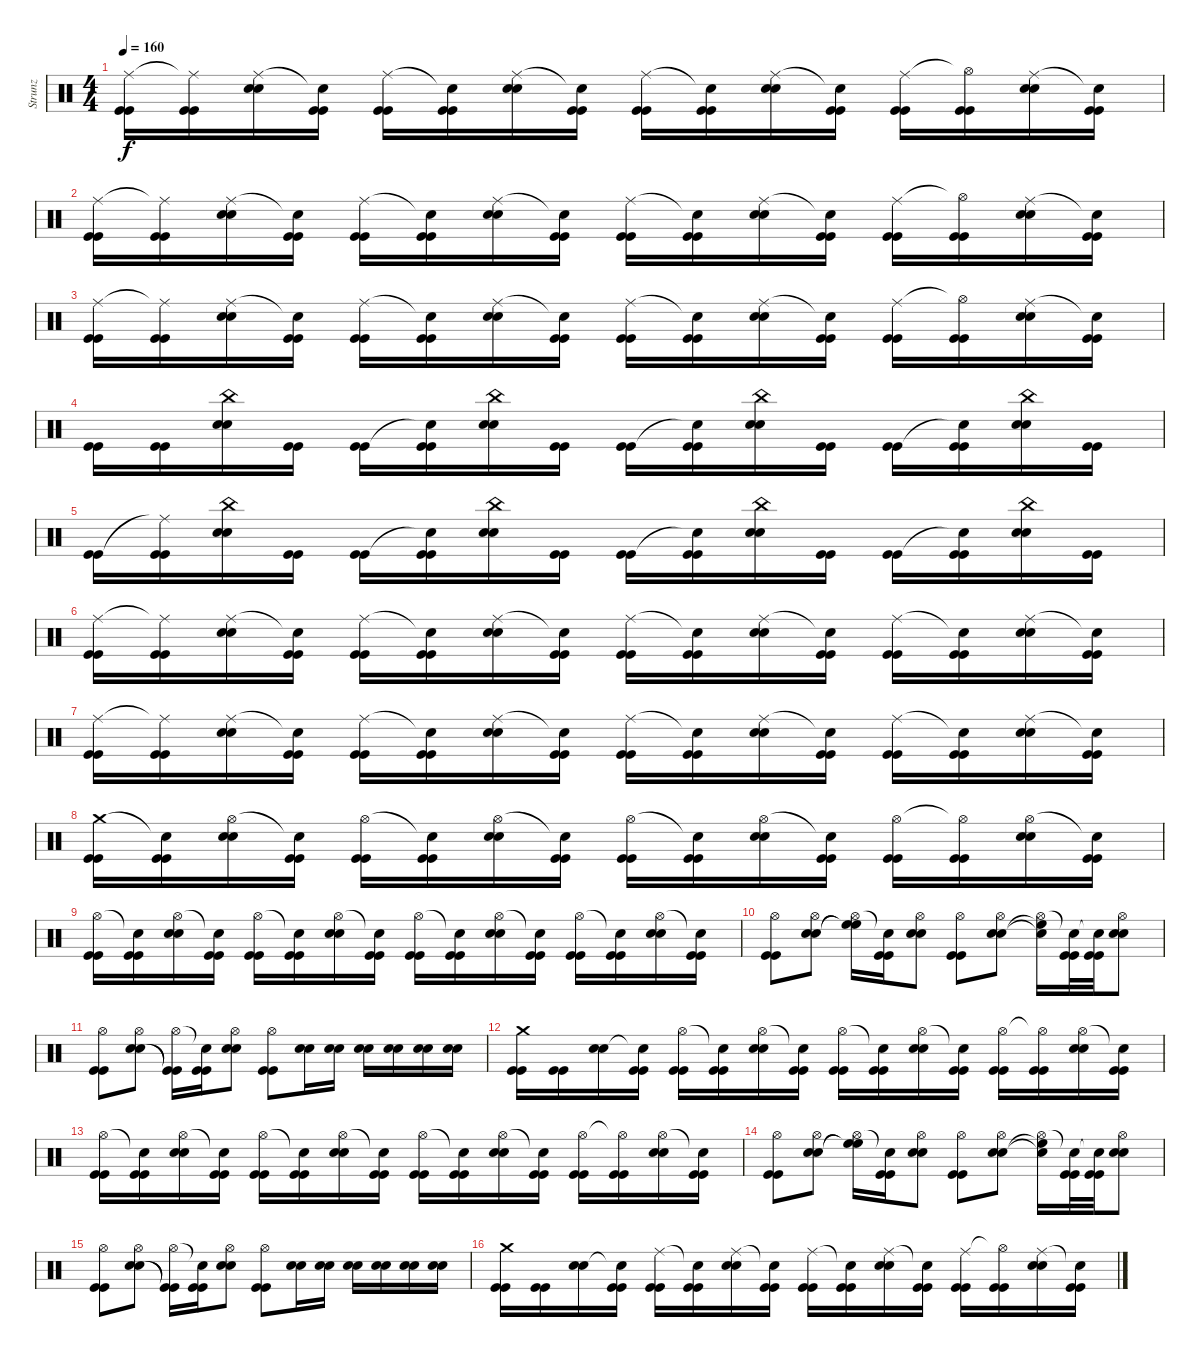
\track ("Strunz" "Strunz") {instrument percussion}
\staff {score}
\articulation defaults
\ts (4 4)
\tempo 160
\clef neutral
\ks c
("Ride (middle)" "Kick (hit)" "Kick (hit)").16{dy f} ("Ride (middle)"{t} "Kick (hit)" "Kick (hit)").16 ("Ride (middle)" "Snare (hit) 2" "Snare (hit) 2").16 ("Snare (hit)"{t} "Kick (hit)" "Kick (hit)").16 ("Ride (middle)" "Kick (hit)" "Kick (hit)").16 ("Snare (hit)"{t} "Kick (hit)" "Kick (hit)").16 ("Ride (middle)" "Snare (hit) 2" "Snare (hit) 2").16 ("Snare (hit)"{t} "Kick (hit)" "Kick (hit)").16 ("Ride (middle)" "Kick (hit)" "Kick (hit)").16 ("Snare (hit)"{t} "Kick (hit)" "Kick (hit)").16 ("Ride (middle)" "Snare (hit) 2" "Snare (hit) 2").16 ("Snare (hit)"{t} "Kick (hit)" "Kick (hit)").16 ("Ride (middle)" "Kick (hit)" "Kick (hit)").16 ("Hi-Hat (open)"{t} "Kick (hit)" "Kick (hit)").16 ("Ride (middle)" "Snare (hit) 2" "Snare (hit) 2").16 ("Snare (hit)"{t} "Kick (hit)" "Kick (hit)").16 |
("Ride (middle)" "Kick (hit)" "Kick (hit)").16 ("Ride (middle)"{t} "Kick (hit)" "Kick (hit)").16 ("Ride (middle)" "Snare (hit) 2" "Snare (hit) 2").16 ("Snare (hit)"{t} "Kick (hit)" "Kick (hit)").16 ("Ride (middle)" "Kick (hit)" "Kick (hit)").16 ("Snare (hit)"{t} "Kick (hit)" "Kick (hit)").16 ("Ride (middle)" "Snare (hit) 2" "Snare (hit) 2").16 ("Snare (hit)"{t} "Kick (hit)" "Kick (hit)").16 ("Ride (middle)" "Kick (hit)" "Kick (hit)").16 ("Snare (hit)"{t} "Kick (hit)" "Kick (hit)").16 ("Ride (middle)" "Snare (hit) 2" "Snare (hit) 2").16 ("Snare (hit)"{t} "Kick (hit)" "Kick (hit)").16 ("Ride (middle)" "Kick (hit)" "Kick (hit)").16 ("Hi-Hat (open)"{t} "Kick (hit)" "Kick (hit)").16 ("Ride (middle)" "Snare (hit) 2" "Snare (hit) 2").16 ("Snare (hit)"{t} "Kick (hit)" "Kick (hit)").16 |
("Ride (middle)" "Kick (hit)" "Kick (hit)").16 ("Ride (middle)"{t} "Kick (hit)" "Kick (hit)").16 ("Ride (middle)" "Snare (hit) 2" "Snare (hit) 2").16 ("Snare (hit)"{t} "Kick (hit)" "Kick (hit)").16 ("Ride (middle)" "Kick (hit)" "Kick (hit)").16 ("Snare (hit)"{t} "Kick (hit)" "Kick (hit)").16 ("Ride (middle)" "Snare (hit) 2" "Snare (hit) 2").16 ("Snare (hit)"{t} "Kick (hit)" "Kick (hit)").16 ("Ride (middle)" "Kick (hit)" "Kick (hit)").16 ("Snare (hit)"{t} "Kick (hit)" "Kick (hit)").16 ("Ride (middle)" "Snare (hit) 2" "Snare (hit) 2").16 ("Snare (hit)"{t} "Kick (hit)" "Kick (hit)").16 ("Ride (middle)" "Kick (hit)" "Kick (hit)").16 ("Hi-Hat (open)"{t} "Kick (hit)" "Kick (hit)").16 ("Ride (middle)" "Snare (hit) 2" "Snare (hit) 2").16 ("Snare (hit)"{t} "Kick (hit)" "Kick (hit)").16 |
("Kick (hit)" "Kick (hit)").16 ("Kick (hit)" "Kick (hit)").16 ("China (hit)" "Snare (hit) 2" "Snare (hit) 2").16 ("Kick (hit)" "Kick (hit)").16 ("Kick (hit)" "Kick (hit)").16 ("Snare (hit)"{t} "Kick (hit)" "Kick (hit)").16 ("China (hit)" "Snare (hit) 2" "Snare (hit) 2").16 ("Kick (hit)" "Kick (hit)").16 ("Kick (hit)" "Kick (hit)").16 ("Snare (hit)"{t} "Kick (hit)" "Kick (hit)").16 ("China (hit)" "Snare (hit) 2" "Snare (hit) 2").16 ("Kick (hit)" "Kick (hit)").16 ("Kick (hit)" "Kick (hit)").16 ("Snare (hit)"{t} "Kick (hit)" "Kick (hit)").16 ("China (hit)" "Snare (hit) 2" "Snare (hit) 2").16 ("Kick (hit)" "Kick (hit)").16 |
("Kick (hit)" "Kick (hit)").16 ("Ride (middle)"{t} "Kick (hit)" "Kick (hit)").16 ("China (hit)" "Snare (hit) 2" "Snare (hit) 2").16 ("Kick (hit)" "Kick (hit)").16 ("Kick (hit)" "Kick (hit)").16 ("Snare (hit)"{t} "Kick (hit)" "Kick (hit)").16 ("China (hit)" "Snare (hit) 2" "Snare (hit) 2").16 ("Kick (hit)" "Kick (hit)").16 ("Kick (hit)" "Kick (hit)").16 ("Snare (hit)"{t} "Kick (hit)" "Kick (hit)").16 ("China (hit)" "Snare (hit) 2" "Snare (hit) 2").16 ("Kick (hit)" "Kick (hit)").16 ("Kick (hit)" "Kick (hit)").16 ("Snare (hit)"{t} "Kick (hit)" "Kick (hit)").16 ("China (hit)" "Snare (hit) 2" "Snare (hit) 2").16 ("Kick (hit)" "Kick (hit)").16 |
("Ride (middle)" "Kick (hit)" "Kick (hit)").16 ("Ride (middle)"{t} "Kick (hit)" "Kick (hit)").16 ("Ride (middle)" "Snare (hit) 2" "Snare (hit) 2").16 ("Snare (hit)"{t} "Kick (hit)" "Kick (hit)").16 ("Ride (middle)" "Kick (hit)" "Kick (hit)").16 ("Snare (hit)"{t} "Kick (hit)" "Kick (hit)").16 ("Ride (middle)" "Snare (hit) 2" "Snare (hit) 2").16 ("Snare (hit)"{t} "Kick (hit)" "Kick (hit)").16 ("Ride (middle)" "Kick (hit)" "Kick (hit)").16 ("Snare (hit)"{t} "Kick (hit)" "Kick (hit)").16 ("Ride (middle)" "Snare (hit) 2" "Snare (hit) 2").16 ("Snare (hit)"{t} "Kick (hit)" "Kick (hit)").16 ("Ride (middle)" "Kick (hit)" "Kick (hit)").16 ("Snare (hit)"{t} "Kick (hit)" "Kick (hit)").16 ("Ride (middle)" "Snare (hit) 2" "Snare (hit) 2").16 ("Snare (hit)"{t} "Kick (hit)" "Kick (hit)").16 |
("Ride (middle)" "Kick (hit)" "Kick (hit)").16 ("Ride (middle)"{t} "Kick (hit)" "Kick (hit)").16 ("Ride (middle)" "Snare (hit) 2" "Snare (hit) 2").16 ("Snare (hit)"{t} "Kick (hit)" "Kick (hit)").16 ("Ride (middle)" "Kick (hit)" "Kick (hit)").16 ("Snare (hit)"{t} "Kick (hit)" "Kick (hit)").16 ("Ride (middle)" "Snare (hit) 2" "Snare (hit) 2").16 ("Snare (hit)"{t} "Kick (hit)" "Kick (hit)").16 ("Ride (middle)" "Kick (hit)" "Kick (hit)").16 ("Snare (hit)"{t} "Kick (hit)" "Kick (hit)").16 ("Ride (middle)" "Snare (hit) 2" "Snare (hit) 2").16 ("Snare (hit)"{t} "Kick (hit)" "Kick (hit)").16 ("Ride (middle)" "Kick (hit)" "Kick (hit)").16 ("Snare (hit)"{t} "Kick (hit)" "Kick (hit)").16 ("Ride (middle)" "Snare (hit) 2" "Snare (hit) 2").16 ("Snare (hit)"{t} "Kick (hit)" "Kick (hit)").16 |
("Crash medium (hit)" "Kick (hit)" "Kick (hit)").16 ("Snare (hit)"{t} "Kick (hit)" "Kick (hit)").16 ("Hi-Hat (open)" "Snare (hit) 2" "Snare (hit) 2").16 ("Snare (hit)"{t} "Kick (hit)" "Kick (hit)").16 ("Hi-Hat (open)" "Kick (hit)" "Kick (hit)").16 ("Snare (hit)"{t} "Kick (hit)" "Kick (hit)").16 ("Hi-Hat (open)" "Snare (hit) 2" "Snare (hit) 2").16 ("Snare (hit)"{t} "Kick (hit)" "Kick (hit)").16 ("Hi-Hat (open)" "Kick (hit)" "Kick (hit)").16 ("Snare (hit)"{t} "Kick (hit)" "Kick (hit)").16 ("Hi-Hat (open)" "Snare (hit) 2" "Snare (hit) 2").16 ("Snare (hit)"{t} "Kick (hit)" "Kick (hit)").16 ("Hi-Hat (open)" "Kick (hit)" "Kick (hit)").16 ("Hi-Hat (open)"{t} "Kick (hit)" "Kick (hit)").16 ("Hi-Hat (open)" "Snare (hit) 2" "Snare (hit) 2").16 ("Snare (hit)"{t} "Kick (hit)" "Kick (hit)").16 |
("Hi-Hat (open)" "Kick (hit)" "Kick (hit)").16 ("Snare (hit)"{t} "Kick (hit)" "Kick (hit)").16 ("Hi-Hat (open)" "Snare (hit) 2" "Snare (hit) 2").16 ("Snare (hit)"{t} "Kick (hit)" "Kick (hit)").16 ("Hi-Hat (open)" "Kick (hit)" "Kick (hit)").16 ("Snare (hit)"{t} "Kick (hit)" "Kick (hit)").16 ("Hi-Hat (open)" "Snare (hit) 2" "Snare (hit) 2").16 ("Snare (hit)"{t} "Kick (hit)" "Kick (hit)").16 ("Hi-Hat (open)" "Kick (hit)" "Kick (hit)").16 ("Snare (hit)"{t} "Kick (hit)" "Kick (hit)").16 ("Hi-Hat (open)" "Snare (hit) 2" "Snare (hit) 2").16 ("Snare (hit)"{t} "Kick (hit)" "Kick (hit)").16 ("Hi-Hat (open)" "Kick (hit)" "Kick (hit)").16 ("Snare (hit)"{t} "Kick (hit)" "Kick (hit)").16 ("Hi-Hat (open)" "Snare (hit) 2" "Snare (hit) 2").16 ("Snare (hit)"{t} "Kick (hit)" "Kick (hit)").16 |
("Hi-Hat (open)" "Kick (hit)" "Kick (hit)").8 ("Hi-Hat (open)" "Snare (hit) 2" "Snare (hit) 2").8 ("Hi-Hat (open)" "High Floor Tom (hit)"{t} "High Floor Tom (hit)"{t}).16 ("Snare (hit)"{t} "Kick (hit)" "Kick (hit)").16 ("Hi-Hat (open)" "Snare (hit) 2" "Snare (hit) 2").8 ("Hi-Hat (open)" "Kick (hit)" "Kick (hit)").8 ("Hi-Hat (open)" "Snare (hit) 2" "Snare (hit) 2").8 ("Hi-Hat (open)" "Snare (hit)"{t} "High Floor Tom (hit)"{t}).16 ("Snare (hit)"{t} "Kick (hit)" "Kick (hit)").32 ("Snare (hit)"{t} "Kick (hit)" "Kick (hit)").32 ("Hi-Hat (open)" "Snare (hit) 2" "Snare (hit) 2").8 |
("Hi-Hat (open)" "Kick (hit)" "Kick (hit)").8 ("Hi-Hat (open)" "Snare (hit) 2" "Snare (hit) 2").8 ("Hi-Hat (open)" "Kick (hit)"{t} "Kick (hit)"{t}).16 ("Snare (hit)"{t} "Kick (hit)" "Kick (hit)").16 ("Hi-Hat (open)" "Snare (hit) 2" "Snare (hit) 2").8 ("Hi-Hat (open)" "Kick (hit)" "Kick (hit)").8 ("Snare (hit) 2" "Snare (hit) 2").16 ("Snare (hit) 2" "Snare (hit) 2").16 ("Snare (hit) 2" "Snare (hit) 2").16 ("Snare (hit) 2" "Snare (hit) 2").16 ("Snare (hit) 2" "Snare (hit) 2").16 ("Snare (hit) 2" "Snare (hit) 2").16 |
("Crash medium (hit)" "Kick (hit)" "Kick (hit)").16 ("Kick (hit)" "Kick (hit)").16 ("Snare (hit) 2" "Snare (hit) 2").16 ("Snare (hit)"{t} "Kick (hit)" "Kick (hit)").16 ("Hi-Hat (open)" "Kick (hit)" "Kick (hit)").16 ("Snare (hit)"{t} "Kick (hit)" "Kick (hit)").16 ("Hi-Hat (open)" "Snare (hit) 2" "Snare (hit) 2").16 ("Snare (hit)"{t} "Kick (hit)" "Kick (hit)").16 ("Hi-Hat (open)" "Kick (hit)" "Kick (hit)").16 ("Snare (hit)"{t} "Kick (hit)" "Kick (hit)").16 ("Hi-Hat (open)" "Snare (hit) 2" "Snare (hit) 2").16 ("Snare (hit)"{t} "Kick (hit)" "Kick (hit)").16 ("Hi-Hat (open)" "Kick (hit)" "Kick (hit)").16 ("Hi-Hat (open)"{t} "Kick (hit)" "Kick (hit)").16 ("Hi-Hat (open)" "Snare (hit) 2" "Snare (hit) 2").16 ("Snare (hit)"{t} "Kick (hit)" "Kick (hit)").16 |
("Hi-Hat (open)" "Kick (hit)" "Kick (hit)").16 ("Snare (hit)"{t} "Kick (hit)" "Kick (hit)").16 ("Hi-Hat (open)" "Snare (hit) 2" "Snare (hit) 2").16 ("Snare (hit)"{t} "Kick (hit)" "Kick (hit)").16 ("Hi-Hat (open)" "Kick (hit)" "Kick (hit)").16 ("Snare (hit)"{t} "Kick (hit)" "Kick (hit)").16 ("Hi-Hat (open)" "Snare (hit) 2" "Snare (hit) 2").16 ("Snare (hit)"{t} "Kick (hit)" "Kick (hit)").16 ("Hi-Hat (open)" "Kick (hit)" "Kick (hit)").16 ("Snare (hit)"{t} "Kick (hit)" "Kick (hit)").16 ("Hi-Hat (open)" "Snare (hit) 2" "Snare (hit) 2").16 ("Snare (hit)"{t} "Kick (hit)" "Kick (hit)").16 ("Hi-Hat (open)" "Kick (hit)" "Kick (hit)").16 ("Hi-Hat (open)"{t} "Kick (hit)" "Kick (hit)").16 ("Hi-Hat (open)" "Snare (hit) 2" "Snare (hit) 2").16 ("Snare (hit)"{t} "Kick (hit)" "Kick (hit)").16 |
("Hi-Hat (open)" "Kick (hit)" "Kick (hit)").8 ("Hi-Hat (open)" "Snare (hit) 2" "Snare (hit) 2").8 ("Hi-Hat (open)" "High Floor Tom (hit)"{t} "High Floor Tom (hit)"{t}).16 ("Snare (hit)"{t} "Kick (hit)" "Kick (hit)").16 ("Hi-Hat (open)" "Snare (hit) 2" "Snare (hit) 2").8 ("Hi-Hat (open)" "Kick (hit)" "Kick (hit)").8 ("Hi-Hat (open)" "Snare (hit) 2" "Snare (hit) 2").8 ("Hi-Hat (open)" "Snare (hit)"{t} "High Floor Tom (hit)"{t}).16 ("Snare (hit)"{t} "Kick (hit)" "Kick (hit)").32 ("Snare (hit)"{t} "Kick (hit)" "Kick (hit)").32 ("Hi-Hat (open)" "Snare (hit) 2" "Snare (hit) 2").8 |
("Hi-Hat (open)" "Kick (hit)" "Kick (hit)").8 ("Hi-Hat (open)" "Snare (hit) 2" "Snare (hit) 2").8 ("Hi-Hat (open)" "Kick (hit)"{t} "Kick (hit)"{t}).16 ("Snare (hit)"{t} "Kick (hit)" "Kick (hit)").16 ("Hi-Hat (open)" "Snare (hit) 2" "Snare (hit) 2").8 ("Hi-Hat (open)" "Kick (hit)" "Kick (hit)").8 ("Snare (hit) 2" "Snare (hit) 2").16 ("Snare (hit) 2" "Snare (hit) 2").16 ("Snare (hit) 2" "Snare (hit) 2").16 ("Snare (hit) 2" "Snare (hit) 2").16 ("Snare (hit) 2" "Snare (hit) 2").16 ("Snare (hit) 2" "Snare (hit) 2").16 |
("Crash medium (hit)" "Kick (hit)" "Kick (hit)").16 ("Kick (hit)" "Kick (hit)").16 ("Snare (hit) 2" "Snare (hit) 2").16 ("Snare (hit)"{t} "Kick (hit)" "Kick (hit)").16 ("Ride (middle)" "Kick (hit)" "Kick (hit)").16 ("Snare (hit)"{t} "Kick (hit)" "Kick (hit)").16 ("Ride (middle)" "Snare (hit) 2" "Snare (hit) 2").16 ("Snare (hit)"{t} "Kick (hit)" "Kick (hit)").16 ("Ride (middle)" "Kick (hit)" "Kick (hit)").16 ("Snare (hit)"{t} "Kick (hit)" "Kick (hit)").16 ("Ride (middle)" "Snare (hit) 2" "Snare (hit) 2").16 ("Snare (hit)"{t} "Kick (hit)" "Kick (hit)").16 ("Ride (middle)" "Kick (hit)" "Kick (hit)").16 ("Hi-Hat (open)"{t} "Kick (hit)" "Kick (hit)").16 ("Ride (middle)" "Snare (hit) 2" "Snare (hit) 2").16 ("Snare (hit)"{t} "Kick (hit)" "Kick (hit)").16
